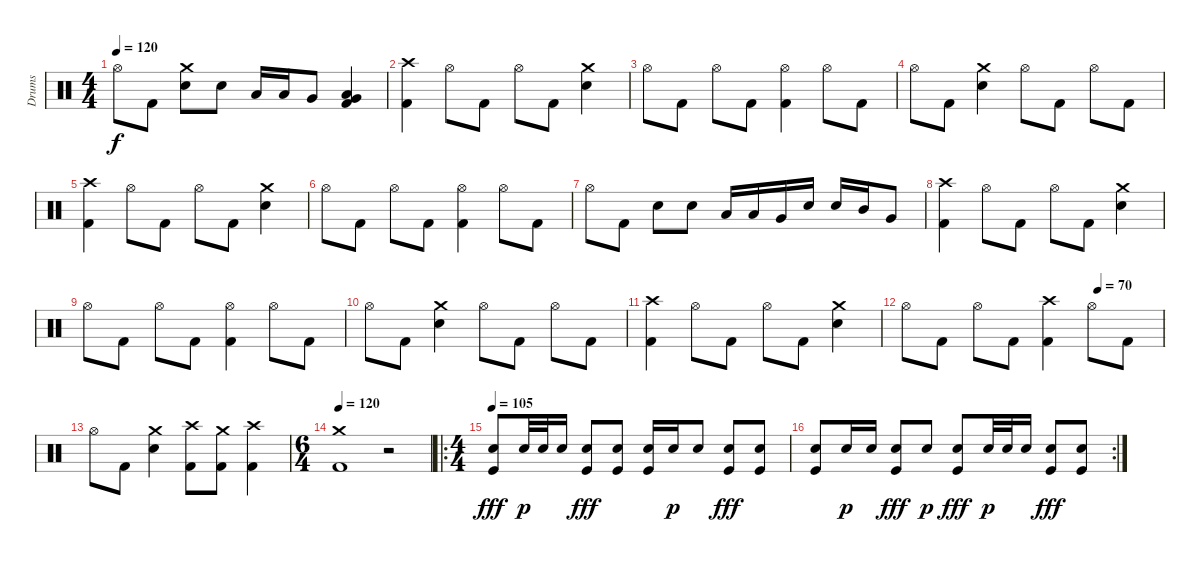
\track ("Drums" "Drums") {instrument percussion}
\staff {score}
\articulation defaults
\ts (4 4)
\tempo 120
\clef neutral
\ks c "Hi-Hat (open)".8{dy f} "Kick (hit) 2".8
("Crash medium (hit)" "Snare (hit) 2").8 "Snare (hit) 2".8 "Low Tom (hit)".16 "Low Tom (hit)".16 "Very Low Tom (hit)".8 ("Very Low Tom (hit)" "Low Floor Tom (hit)" "Kick (hit) 2").4 |
("Crash high (hit)" "Kick (hit) 2").4 "Hi-Hat (open)".8 "Kick (hit) 2".8 "Hi-Hat (open)".8 "Kick (hit) 2".8 ("Crash medium (hit)" "Snare (hit) 2").4 |
"Hi-Hat (open)".8 "Kick (hit) 2".8 "Hi-Hat (open)".8 "Kick (hit) 2".8 ("Hi-Hat (open)" "Kick (hit) 2").4 "Hi-Hat (open)".8 "Kick (hit) 2".8 |
"Hi-Hat (open)".8 "Kick (hit) 2".8 ("Crash medium (hit)" "Snare (hit) 2").4 "Hi-Hat (open)".8 "Kick (hit) 2".8 "Hi-Hat (open)".8 "Kick (hit) 2".8 |
("Crash high (hit)" "Kick (hit) 2").4 "Hi-Hat (open)".8 "Kick (hit) 2".8 "Hi-Hat (open)".8 "Kick (hit) 2".8 ("Crash medium (hit)" "Snare (hit) 2").4 |
"Hi-Hat (open)".8 "Kick (hit) 2".8 "Hi-Hat (open)".8 "Kick (hit) 2".8 ("Hi-Hat (open)" "Kick (hit) 2").4 "Hi-Hat (open)".8 "Kick (hit) 2".8 |
"Hi-Hat (open)".8 "Kick (hit) 2".8 "Snare (hit) 2".8 "Snare (hit) 2".8 "Low Tom (hit)".16 "Low Tom (hit)".16 "Very Low Tom (hit)".16 "Snare (hit) 2".16 "Snare (hit) 2".16 "Mid Tom (hit)".16 "Very Low Tom (hit)".8 |
("Crash high (hit)" "Kick (hit) 2").4 "Hi-Hat (open)".8 "Kick (hit) 2".8 "Hi-Hat (open)".8 "Kick (hit) 2".8 ("Crash medium (hit)" "Snare (hit) 2").4 |
"Hi-Hat (open)".8 "Kick (hit) 2".8 "Hi-Hat (open)".8 "Kick (hit) 2".8 ("Hi-Hat (open)" "Kick (hit) 2").4 "Hi-Hat (open)".8 "Kick (hit) 2".8 |
"Hi-Hat (open)".8 "Kick (hit) 2".8 ("Crash medium (hit)" "Snare (hit) 2").4 "Hi-Hat (open)".8 "Kick (hit) 2".8 "Hi-Hat (open)".8 "Kick (hit) 2".8 |
("Crash high (hit)" "Kick (hit) 2").4 "Hi-Hat (open)".8 "Kick (hit) 2".8 "Hi-Hat (open)".8 "Kick (hit) 2".8 ("Crash medium (hit)" "Snare (hit) 2").4 |
\tempo (70 0.75)
"Hi-Hat (open)".8 "Kick (hit) 2".8 "Hi-Hat (open)".8 "Kick (hit) 2".8 ("Crash high (hit)" "Kick (hit) 2").4 "Hi-Hat (open)".8 "Kick (hit) 2".8 |
"Hi-Hat (open)".8 "Kick (hit) 2".8 ("Crash medium (hit)" "Snare (hit) 2").4 ("Crash high (hit)" "Kick (hit) 2").8 ("Crash medium (hit)" "Kick (hit) 2").8 ("Crash high (hit)" "Kick (hit) 2").4 |
\ts (6 4)
\tempo 120
("Crash medium (hit)" "Kick (hit) 2").1 r.2 |
\ro
\ts (4 4)
\tempo 105
("Electric Snare (hit)" "Kick (hit)").8{dy fff} "Electric Snare (hit)".32{dy p} "Electric Snare (hit)".32 "Electric Snare (hit)".16 ("Electric Snare (hit)" "Kick (hit)").8{dy fff} ("Electric Snare (hit)" "Kick (hit)").8 ("Electric Snare (hit)" "Kick (hit)").16 "Electric Snare (hit)".16{dy p} "Electric Snare (hit)".8 ("Electric Snare (hit)" "Kick (hit)").8{dy fff} ("Electric Snare (hit)" "Kick (hit)").8 |
\rc 2
("Electric Snare (hit)" "Kick (hit)").8 "Electric Snare (hit)".16{dy p} "Electric Snare (hit)".16 ("Electric Snare (hit)" "Kick (hit)").8{dy fff} "Electric Snare (hit)".8{dy p} ("Electric Snare (hit)" "Kick (hit)").8{dy fff} "Electric Snare (hit)".32{dy p} "Electric Snare (hit)".32 "Electric Snare (hit)".16 ("Electric Snare (hit)" "Kick (hit)").8{dy fff} ("Electric Snare (hit)" "Kick (hit)").8
